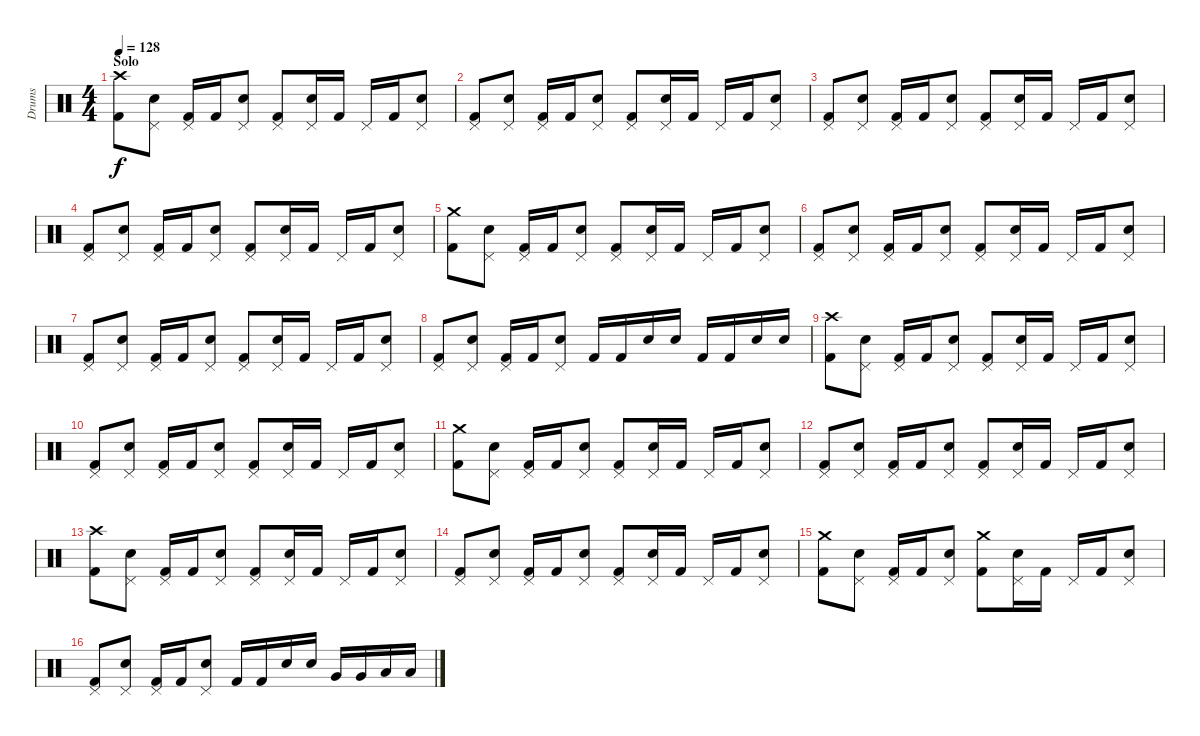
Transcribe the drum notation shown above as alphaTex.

\track ("Drums" "Drums") {instrument percussion}
\staff {score}
\articulation defaults
\ts (4 4)
\section ("" "Solo")
\tempo 128
\clef neutral
\ks c
("Crash high (hit)" "Kick (hit) 2").8{dy f} ("Pedal Hi-Hat (hit)" "Snare (hit) 2").8 ("Pedal Hi-Hat (hit)" "Kick (hit) 2").16 "Kick (hit) 2".16 ("Pedal Hi-Hat (hit)" "Snare (hit) 2").8 ("Pedal Hi-Hat (hit)" "Kick (hit) 2").8 ("Pedal Hi-Hat (hit)" "Snare (hit) 2").16 "Kick (hit) 2".16 "Pedal Hi-Hat (hit)".16 "Kick (hit) 2".16 ("Pedal Hi-Hat (hit)" "Snare (hit) 2").8 |
("Pedal Hi-Hat (hit)" "Kick (hit) 2").8 ("Pedal Hi-Hat (hit)" "Snare (hit) 2").8 ("Pedal Hi-Hat (hit)" "Kick (hit) 2").16 "Kick (hit) 2".16 ("Pedal Hi-Hat (hit)" "Snare (hit) 2").8 ("Pedal Hi-Hat (hit)" "Kick (hit) 2").8 ("Pedal Hi-Hat (hit)" "Snare (hit) 2").16 "Kick (hit) 2".16 "Pedal Hi-Hat (hit)".16 "Kick (hit) 2".16 ("Pedal Hi-Hat (hit)" "Snare (hit) 2").8 |
("Pedal Hi-Hat (hit)" "Kick (hit) 2").8 ("Pedal Hi-Hat (hit)" "Snare (hit) 2").8 ("Pedal Hi-Hat (hit)" "Kick (hit) 2").16 "Kick (hit) 2".16 ("Pedal Hi-Hat (hit)" "Snare (hit) 2").8 ("Pedal Hi-Hat (hit)" "Kick (hit) 2").8 ("Pedal Hi-Hat (hit)" "Snare (hit) 2").16 "Kick (hit) 2".16 "Pedal Hi-Hat (hit)".16 "Kick (hit) 2".16 ("Pedal Hi-Hat (hit)" "Snare (hit) 2").8 |
("Pedal Hi-Hat (hit)" "Kick (hit) 2").8 ("Pedal Hi-Hat (hit)" "Snare (hit) 2").8 ("Pedal Hi-Hat (hit)" "Kick (hit) 2").16 "Kick (hit) 2".16 ("Pedal Hi-Hat (hit)" "Snare (hit) 2").8 ("Pedal Hi-Hat (hit)" "Kick (hit) 2").8 ("Pedal Hi-Hat (hit)" "Snare (hit) 2").16 "Kick (hit) 2".16 "Pedal Hi-Hat (hit)".16 "Kick (hit) 2".16 ("Pedal Hi-Hat (hit)" "Snare (hit) 2").8 |
("Crash medium (hit)" "Kick (hit) 2").8 ("Pedal Hi-Hat (hit)" "Snare (hit) 2").8 ("Pedal Hi-Hat (hit)" "Kick (hit) 2").16 "Kick (hit) 2".16 ("Pedal Hi-Hat (hit)" "Snare (hit) 2").8 ("Pedal Hi-Hat (hit)" "Kick (hit) 2").8 ("Pedal Hi-Hat (hit)" "Snare (hit) 2").16 "Kick (hit) 2".16 "Pedal Hi-Hat (hit)".16 "Kick (hit) 2".16 ("Pedal Hi-Hat (hit)" "Snare (hit) 2").8 |
("Pedal Hi-Hat (hit)" "Kick (hit) 2").8 ("Pedal Hi-Hat (hit)" "Snare (hit) 2").8 ("Pedal Hi-Hat (hit)" "Kick (hit) 2").16 "Kick (hit) 2".16 ("Pedal Hi-Hat (hit)" "Snare (hit) 2").8 ("Pedal Hi-Hat (hit)" "Kick (hit) 2").8 ("Pedal Hi-Hat (hit)" "Snare (hit) 2").16 "Kick (hit) 2".16 "Pedal Hi-Hat (hit)".16 "Kick (hit) 2".16 ("Pedal Hi-Hat (hit)" "Snare (hit) 2").8 |
("Pedal Hi-Hat (hit)" "Kick (hit) 2").8 ("Pedal Hi-Hat (hit)" "Snare (hit) 2").8 ("Pedal Hi-Hat (hit)" "Kick (hit) 2").16 "Kick (hit) 2".16 ("Pedal Hi-Hat (hit)" "Snare (hit) 2").8 ("Pedal Hi-Hat (hit)" "Kick (hit) 2").8 ("Pedal Hi-Hat (hit)" "Snare (hit) 2").16 "Kick (hit) 2".16 "Pedal Hi-Hat (hit)".16 "Kick (hit) 2".16 ("Pedal Hi-Hat (hit)" "Snare (hit) 2").8 |
("Pedal Hi-Hat (hit)" "Kick (hit) 2").8 ("Pedal Hi-Hat (hit)" "Snare (hit) 2").8 ("Pedal Hi-Hat (hit)" "Kick (hit) 2").16 "Kick (hit) 2".16 ("Pedal Hi-Hat (hit)" "Snare (hit) 2").8 "Kick (hit) 2".16 "Kick (hit) 2".16 "Snare (hit) 2".16 "Snare (hit) 2".16 "Kick (hit) 2".16 "Kick (hit) 2".16 "Snare (hit) 2".16 "Snare (hit) 2".16 |
("Crash high (hit)" "Kick (hit) 2").8 ("Pedal Hi-Hat (hit)" "Snare (hit) 2").8 ("Pedal Hi-Hat (hit)" "Kick (hit) 2").16 "Kick (hit) 2".16 ("Pedal Hi-Hat (hit)" "Snare (hit) 2").8 ("Pedal Hi-Hat (hit)" "Kick (hit) 2").8 ("Pedal Hi-Hat (hit)" "Snare (hit) 2").16 "Kick (hit) 2".16 "Pedal Hi-Hat (hit)".16 "Kick (hit) 2".16 ("Pedal Hi-Hat (hit)" "Snare (hit) 2").8 |
("Pedal Hi-Hat (hit)" "Kick (hit) 2").8 ("Pedal Hi-Hat (hit)" "Snare (hit) 2").8 ("Pedal Hi-Hat (hit)" "Kick (hit) 2").16 "Kick (hit) 2".16 ("Pedal Hi-Hat (hit)" "Snare (hit) 2").8 ("Pedal Hi-Hat (hit)" "Kick (hit) 2").8 ("Pedal Hi-Hat (hit)" "Snare (hit) 2").16 "Kick (hit) 2".16 "Pedal Hi-Hat (hit)".16 "Kick (hit) 2".16 ("Pedal Hi-Hat (hit)" "Snare (hit) 2").8 |
("Crash medium (hit)" "Kick (hit) 2").8 ("Pedal Hi-Hat (hit)" "Snare (hit) 2").8 ("Pedal Hi-Hat (hit)" "Kick (hit) 2").16 "Kick (hit) 2".16 ("Pedal Hi-Hat (hit)" "Snare (hit) 2").8 ("Pedal Hi-Hat (hit)" "Kick (hit) 2").8 ("Pedal Hi-Hat (hit)" "Snare (hit) 2").16 "Kick (hit) 2".16 "Pedal Hi-Hat (hit)".16 "Kick (hit) 2".16 ("Pedal Hi-Hat (hit)" "Snare (hit) 2").8 |
("Pedal Hi-Hat (hit)" "Kick (hit) 2").8 ("Pedal Hi-Hat (hit)" "Snare (hit) 2").8 ("Pedal Hi-Hat (hit)" "Kick (hit) 2").16 "Kick (hit) 2".16 ("Pedal Hi-Hat (hit)" "Snare (hit) 2").8 ("Pedal Hi-Hat (hit)" "Kick (hit) 2").8 ("Pedal Hi-Hat (hit)" "Snare (hit) 2").16 "Kick (hit) 2".16 "Pedal Hi-Hat (hit)".16 "Kick (hit) 2".16 ("Pedal Hi-Hat (hit)" "Snare (hit) 2").8 |
("Crash high (hit)" "Kick (hit) 2").8 ("Pedal Hi-Hat (hit)" "Snare (hit) 2").8 ("Pedal Hi-Hat (hit)" "Kick (hit) 2").16 "Kick (hit) 2".16 ("Pedal Hi-Hat (hit)" "Snare (hit) 2").8 ("Pedal Hi-Hat (hit)" "Kick (hit) 2").8 ("Pedal Hi-Hat (hit)" "Snare (hit) 2").16 "Kick (hit) 2".16 "Pedal Hi-Hat (hit)".16 "Kick (hit) 2".16 ("Pedal Hi-Hat (hit)" "Snare (hit) 2").8 |
("Pedal Hi-Hat (hit)" "Kick (hit) 2").8 ("Pedal Hi-Hat (hit)" "Snare (hit) 2").8 ("Pedal Hi-Hat (hit)" "Kick (hit) 2").16 "Kick (hit) 2".16 ("Pedal Hi-Hat (hit)" "Snare (hit) 2").8 ("Pedal Hi-Hat (hit)" "Kick (hit) 2").8 ("Pedal Hi-Hat (hit)" "Snare (hit) 2").16 "Kick (hit) 2".16 "Pedal Hi-Hat (hit)".16 "Kick (hit) 2".16 ("Pedal Hi-Hat (hit)" "Snare (hit) 2").8 |
("Crash medium (hit)" "Kick (hit) 2").8 ("Pedal Hi-Hat (hit)" "Snare (hit) 2").8 ("Pedal Hi-Hat (hit)" "Kick (hit) 2").16 "Kick (hit) 2".16 ("Pedal Hi-Hat (hit)" "Snare (hit) 2").8 ("Crash medium (hit)" "Kick (hit) 2").8 ("Pedal Hi-Hat (hit)" "Snare (hit) 2").16 "Kick (hit) 2".16 "Pedal Hi-Hat (hit)".16 "Kick (hit) 2".16 ("Pedal Hi-Hat (hit)" "Snare (hit) 2").8 |
("Pedal Hi-Hat (hit)" "Kick (hit) 2").8 ("Pedal Hi-Hat (hit)" "Snare (hit) 2").8 ("Pedal Hi-Hat (hit)" "Kick (hit) 2").16 "Kick (hit) 2".16 ("Pedal Hi-Hat (hit)" "Snare (hit) 2").8 "Kick (hit) 2".16 "Kick (hit) 2".16 "Snare (hit) 2".16 "Snare (hit) 2".16 "Very Low Tom (hit)".16 "Very Low Tom (hit)".16 "Low Floor Tom (hit)".16 "Low Floor Tom (hit)".16
